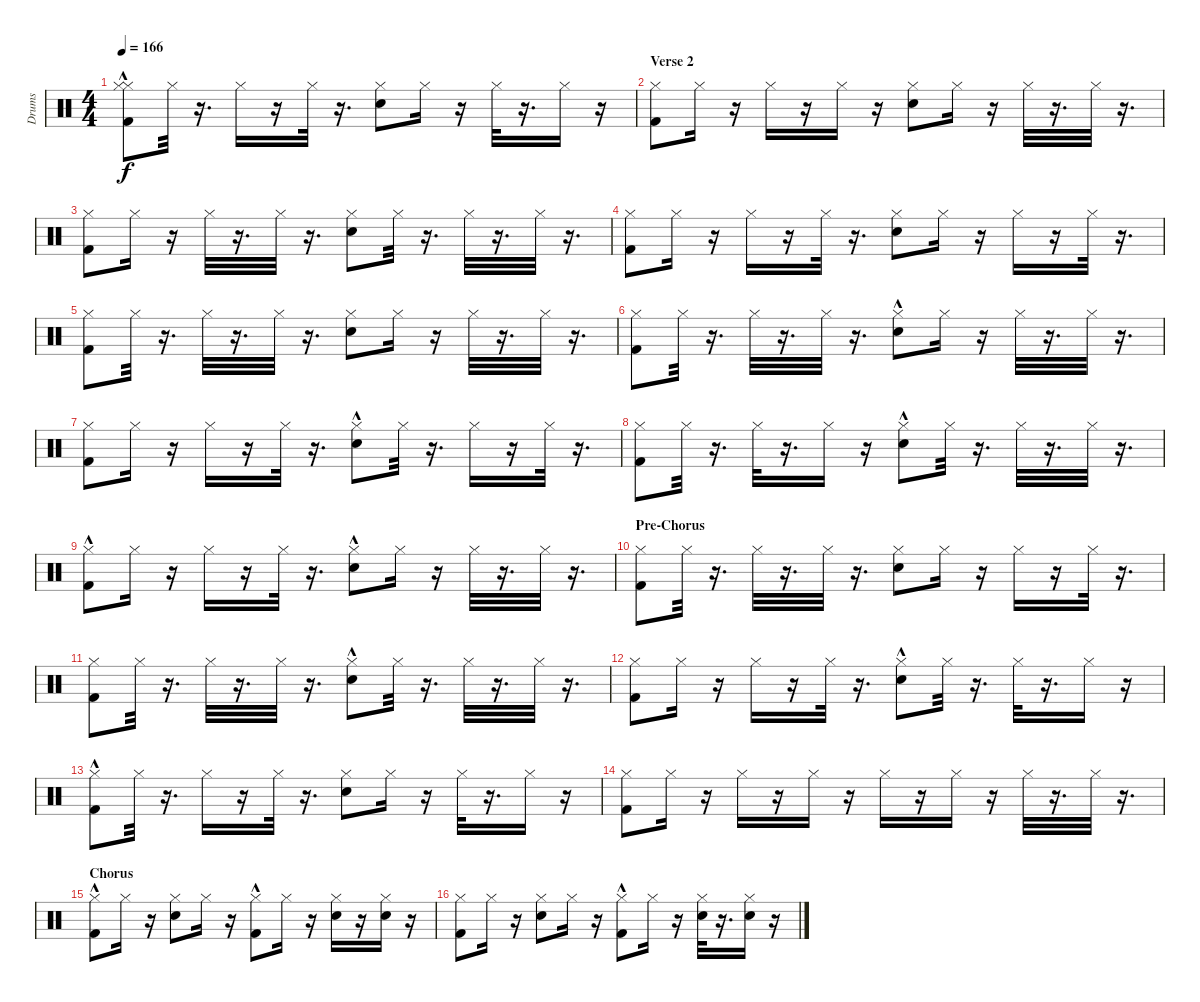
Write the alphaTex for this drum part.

\track ("Drums" "Drums") {instrument percussion}
\staff {score}
\articulation defaults
\ts (4 4)
\tempo 166
\clef neutral
\ks c
("Hi-Hat (closed)" "Kick (hit) 2"{hac} "Hi-Hat (closed)").8{dy f} "Hi-Hat (closed)".32 r.16{d} "Hi-Hat (closed)".16 r.16 "Hi-Hat (closed)".32 r.16{d} ("Hi-Hat (closed)" "Snare (hit) 2").8 "Hi-Hat (closed)".16 r.16 "Hi-Hat (closed)".32 r.16{d} "Hi-Hat (closed)".16 r.16 |
\section ("" "Verse 2")
("Kick (hit) 2" "Hi-Hat (closed)").8 "Hi-Hat (closed)".16 r.16 "Hi-Hat (closed)".16 r.16 "Hi-Hat (closed)".16 r.16 ("Hi-Hat (closed)" "Snare (hit) 2").8 "Hi-Hat (closed)".16 r.16 "Hi-Hat (closed)".32 r.16{d} "Hi-Hat (closed)".32 r.16{d} |
("Kick (hit) 2" "Hi-Hat (closed)").8 "Hi-Hat (closed)".16 r.16 "Hi-Hat (closed)".32 r.16{d} "Hi-Hat (closed)".32 r.16{d} ("Hi-Hat (closed)" "Snare (hit) 2").8 "Hi-Hat (closed)".32 r.16{d} "Hi-Hat (closed)".32 r.16{d} "Hi-Hat (closed)".32 r.16{d} |
("Kick (hit) 2" "Hi-Hat (closed)").8 "Hi-Hat (closed)".16 r.16 "Hi-Hat (closed)".16 r.16 "Hi-Hat (closed)".32 r.16{d} ("Hi-Hat (closed)" "Snare (hit) 2").8 "Hi-Hat (closed)".16 r.16 "Hi-Hat (closed)".16 r.16 "Hi-Hat (closed)".32 r.16{d} |
("Kick (hit) 2" "Hi-Hat (closed)").8 "Hi-Hat (closed)".32 r.16{d} "Hi-Hat (closed)".32 r.16{d} "Hi-Hat (closed)".32 r.16{d} ("Hi-Hat (closed)" "Snare (hit) 2").8 "Hi-Hat (closed)".16 r.16 "Hi-Hat (closed)".32 r.16{d} "Hi-Hat (closed)".32 r.16{d} |
("Kick (hit) 2" "Hi-Hat (closed)").8 "Hi-Hat (closed)".32 r.16{d} "Hi-Hat (closed)".32 r.16{d} "Hi-Hat (closed)".32 r.16{d} ("Hi-Hat (closed)" "Snare (hit) 2"{hac}).8 "Hi-Hat (closed)".16 r.16 "Hi-Hat (closed)".32 r.16{d} "Hi-Hat (closed)".32 r.16{d} |
("Kick (hit) 2" "Hi-Hat (closed)").8 "Hi-Hat (closed)".16 r.16 "Hi-Hat (closed)".16 r.16 "Hi-Hat (closed)".32 r.16{d} ("Hi-Hat (closed)" "Snare (hit) 2"{hac}).8 "Hi-Hat (closed)".32 r.16{d} "Hi-Hat (closed)".16 r.16 "Hi-Hat (closed)".32 r.16{d} |
("Kick (hit) 2" "Hi-Hat (closed)").8 "Hi-Hat (closed)".32 r.16{d} "Hi-Hat (closed)".32 r.16{d} "Hi-Hat (closed)".16 r.16 ("Hi-Hat (closed)" "Snare (hit) 2"{hac}).8 "Hi-Hat (closed)".32 r.16{d} "Hi-Hat (closed)".32 r.16{d} "Hi-Hat (closed)".32 r.16{d} |
("Kick (hit) 2"{hac} "Hi-Hat (closed)").8 "Hi-Hat (closed)".16 r.16 "Hi-Hat (closed)".16 r.16 "Hi-Hat (closed)".32 r.16{d} ("Hi-Hat (closed)" "Snare (hit) 2"{hac}).8 "Hi-Hat (closed)".16 r.16 "Hi-Hat (closed)".32 r.16{d} "Hi-Hat (closed)".32 r.16{d} |
\section ("" "Pre-Chorus")
("Kick (hit) 2" "Hi-Hat (closed)").8 "Hi-Hat (closed)".32 r.16{d} "Hi-Hat (closed)".32 r.16{d} "Hi-Hat (closed)".32 r.16{d} ("Hi-Hat (closed)" "Snare (hit) 2").8 "Hi-Hat (closed)".16 r.16 "Hi-Hat (closed)".16 r.16 "Hi-Hat (closed)".32 r.16{d} |
("Kick (hit) 2" "Hi-Hat (closed)").8 "Hi-Hat (closed)".32 r.16{d} "Hi-Hat (closed)".32 r.16{d} "Hi-Hat (closed)".32 r.16{d} ("Hi-Hat (closed)" "Snare (hit) 2"{hac}).8 "Hi-Hat (closed)".32 r.16{d} "Hi-Hat (closed)".32 r.16{d} "Hi-Hat (closed)".32 r.16{d} |
("Kick (hit) 2" "Hi-Hat (closed)").8 "Hi-Hat (closed)".16 r.16 "Hi-Hat (closed)".16 r.16 "Hi-Hat (closed)".32 r.16{d} ("Hi-Hat (closed)" "Snare (hit) 2"{hac}).8 "Hi-Hat (closed)".32 r.16{d} "Hi-Hat (closed)".32 r.16{d} "Hi-Hat (closed)".16 r.16 |
("Kick (hit) 2"{hac} "Hi-Hat (closed)").8 "Hi-Hat (closed)".32 r.16{d} "Hi-Hat (closed)".16 r.16 "Hi-Hat (closed)".32 r.16{d} ("Hi-Hat (closed)" "Snare (hit) 2").8 "Hi-Hat (closed)".16 r.16 "Hi-Hat (closed)".32 r.16{d} "Hi-Hat (closed)".16 r.16 |
("Kick (hit) 2" "Hi-Hat (closed)").8 "Hi-Hat (closed)".16 r.16 "Hi-Hat (closed)".16 r.16 "Hi-Hat (closed)".16 r.16 "Hi-Hat (closed)".16 r.16 "Hi-Hat (closed)".16 r.16 "Hi-Hat (closed)".32 r.16{d} "Hi-Hat (closed)".32 r.16{d} |
\section ("" "Chorus")
("Kick (hit) 2"{hac} "Hi-Hat (closed)").8 "Hi-Hat (closed)".16 r.16 ("Hi-Hat (closed)" "Snare (hit) 2").8 "Hi-Hat (closed)".16 r.16 ("Kick (hit) 2"{hac} "Hi-Hat (closed)").8 "Hi-Hat (closed)".16 r.16 ("Hi-Hat (closed)" "Snare (hit) 2").16 r.16 ("Hi-Hat (closed)" "Snare (hit) 2").16 r.16 |
("Kick (hit) 2" "Hi-Hat (closed)").8 "Hi-Hat (closed)".16 r.16 ("Hi-Hat (closed)" "Snare (hit) 2").8 "Hi-Hat (closed)".16 r.16 ("Kick (hit) 2"{hac} "Hi-Hat (closed)").8 "Hi-Hat (closed)".16 r.16 ("Hi-Hat (closed)" "Snare (hit) 2").32 r.16{d} ("Hi-Hat (closed)" "Snare (hit) 2").16 r.16
